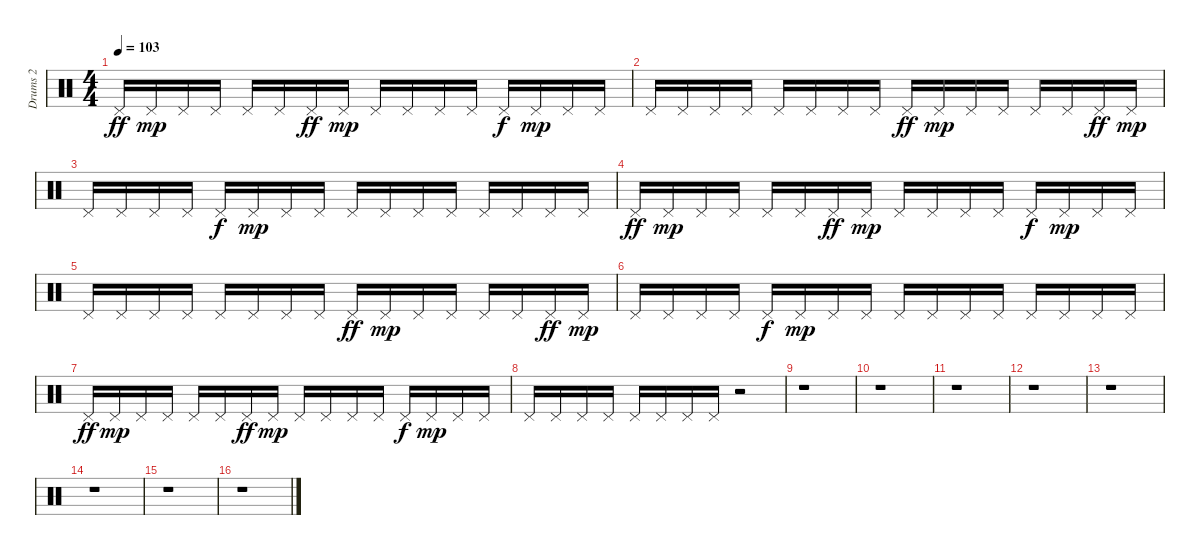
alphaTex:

\track ("Drums 2" "Drums 2") {instrument percussion}
\staff {score}
\articulation defaults
\ts (4 4)
\tempo 103
\clef neutral
\ks c "Pedal Hi-Hat (hit)".16{dy ff} "Pedal Hi-Hat (hit)".16{dy mp} "Pedal Hi-Hat (hit)".16 "Pedal Hi-Hat (hit)".16 "Pedal Hi-Hat (hit)".16 "Pedal Hi-Hat (hit)".16 "Pedal Hi-Hat (hit)".16{dy ff} "Pedal Hi-Hat (hit)".16{dy mp} "Pedal Hi-Hat (hit)".16 "Pedal Hi-Hat (hit)".16 "Pedal Hi-Hat (hit)".16 "Pedal Hi-Hat (hit)".16 "Pedal Hi-Hat (hit)".16{dy f} "Pedal Hi-Hat (hit)".16{dy mp} "Pedal Hi-Hat (hit)".16 "Pedal Hi-Hat (hit)".16
|
"Pedal Hi-Hat (hit)".16 "Pedal Hi-Hat (hit)".16 "Pedal Hi-Hat (hit)".16 "Pedal Hi-Hat (hit)".16 "Pedal Hi-Hat (hit)".16 "Pedal Hi-Hat (hit)".16 "Pedal Hi-Hat (hit)".16 "Pedal Hi-Hat (hit)".16 "Pedal Hi-Hat (hit)".16{dy ff} "Pedal Hi-Hat (hit)".16{dy mp} "Pedal Hi-Hat (hit)".16 "Pedal Hi-Hat (hit)".16 "Pedal Hi-Hat (hit)".16 "Pedal Hi-Hat (hit)".16 "Pedal Hi-Hat (hit)".16{dy ff} "Pedal Hi-Hat (hit)".16{dy mp} |
"Pedal Hi-Hat (hit)".16 "Pedal Hi-Hat (hit)".16 "Pedal Hi-Hat (hit)".16 "Pedal Hi-Hat (hit)".16 "Pedal Hi-Hat (hit)".16{dy f} "Pedal Hi-Hat (hit)".16{dy mp} "Pedal Hi-Hat (hit)".16 "Pedal Hi-Hat (hit)".16 "Pedal Hi-Hat (hit)".16 "Pedal Hi-Hat (hit)".16 "Pedal Hi-Hat (hit)".16 "Pedal Hi-Hat (hit)".16 "Pedal Hi-Hat (hit)".16 "Pedal Hi-Hat (hit)".16 "Pedal Hi-Hat (hit)".16 "Pedal Hi-Hat (hit)".16 |
"Pedal Hi-Hat (hit)".16{dy ff} "Pedal Hi-Hat (hit)".16{dy mp} "Pedal Hi-Hat (hit)".16 "Pedal Hi-Hat (hit)".16 "Pedal Hi-Hat (hit)".16 "Pedal Hi-Hat (hit)".16 "Pedal Hi-Hat (hit)".16{dy ff} "Pedal Hi-Hat (hit)".16{dy mp} "Pedal Hi-Hat (hit)".16 "Pedal Hi-Hat (hit)".16 "Pedal Hi-Hat (hit)".16 "Pedal Hi-Hat (hit)".16 "Pedal Hi-Hat (hit)".16{dy f} "Pedal Hi-Hat (hit)".16{dy mp} "Pedal Hi-Hat (hit)".16 "Pedal Hi-Hat (hit)".16 |
"Pedal Hi-Hat (hit)".16 "Pedal Hi-Hat (hit)".16 "Pedal Hi-Hat (hit)".16 "Pedal Hi-Hat (hit)".16 "Pedal Hi-Hat (hit)".16 "Pedal Hi-Hat (hit)".16 "Pedal Hi-Hat (hit)".16 "Pedal Hi-Hat (hit)".16 "Pedal Hi-Hat (hit)".16{dy ff} "Pedal Hi-Hat (hit)".16{dy mp} "Pedal Hi-Hat (hit)".16 "Pedal Hi-Hat (hit)".16 "Pedal Hi-Hat (hit)".16 "Pedal Hi-Hat (hit)".16 "Pedal Hi-Hat (hit)".16{dy ff} "Pedal Hi-Hat (hit)".16{dy mp} |
"Pedal Hi-Hat (hit)".16 "Pedal Hi-Hat (hit)".16 "Pedal Hi-Hat (hit)".16 "Pedal Hi-Hat (hit)".16 "Pedal Hi-Hat (hit)".16{dy f} "Pedal Hi-Hat (hit)".16{dy mp} "Pedal Hi-Hat (hit)".16 "Pedal Hi-Hat (hit)".16 "Pedal Hi-Hat (hit)".16 "Pedal Hi-Hat (hit)".16 "Pedal Hi-Hat (hit)".16 "Pedal Hi-Hat (hit)".16 "Pedal Hi-Hat (hit)".16 "Pedal Hi-Hat (hit)".16 "Pedal Hi-Hat (hit)".16 "Pedal Hi-Hat (hit)".16 |
"Pedal Hi-Hat (hit)".16{dy ff} "Pedal Hi-Hat (hit)".16{dy mp} "Pedal Hi-Hat (hit)".16 "Pedal Hi-Hat (hit)".16 "Pedal Hi-Hat (hit)".16 "Pedal Hi-Hat (hit)".16 "Pedal Hi-Hat (hit)".16{dy ff} "Pedal Hi-Hat (hit)".16{dy mp} "Pedal Hi-Hat (hit)".16 "Pedal Hi-Hat (hit)".16 "Pedal Hi-Hat (hit)".16 "Pedal Hi-Hat (hit)".16 "Pedal Hi-Hat (hit)".16{dy f} "Pedal Hi-Hat (hit)".16{dy mp} "Pedal Hi-Hat (hit)".16 "Pedal Hi-Hat (hit)".16 |
"Pedal Hi-Hat (hit)".16 "Pedal Hi-Hat (hit)".16 "Pedal Hi-Hat (hit)".16 "Pedal Hi-Hat (hit)".16 "Pedal Hi-Hat (hit)".16 "Pedal Hi-Hat (hit)".16 "Pedal Hi-Hat (hit)".16 "Pedal Hi-Hat (hit)".16 r.2 |
r.1 |
r.1 |
r.1 |
r.1 |
r.1 |
r.1 |
r.1 |
r.1
